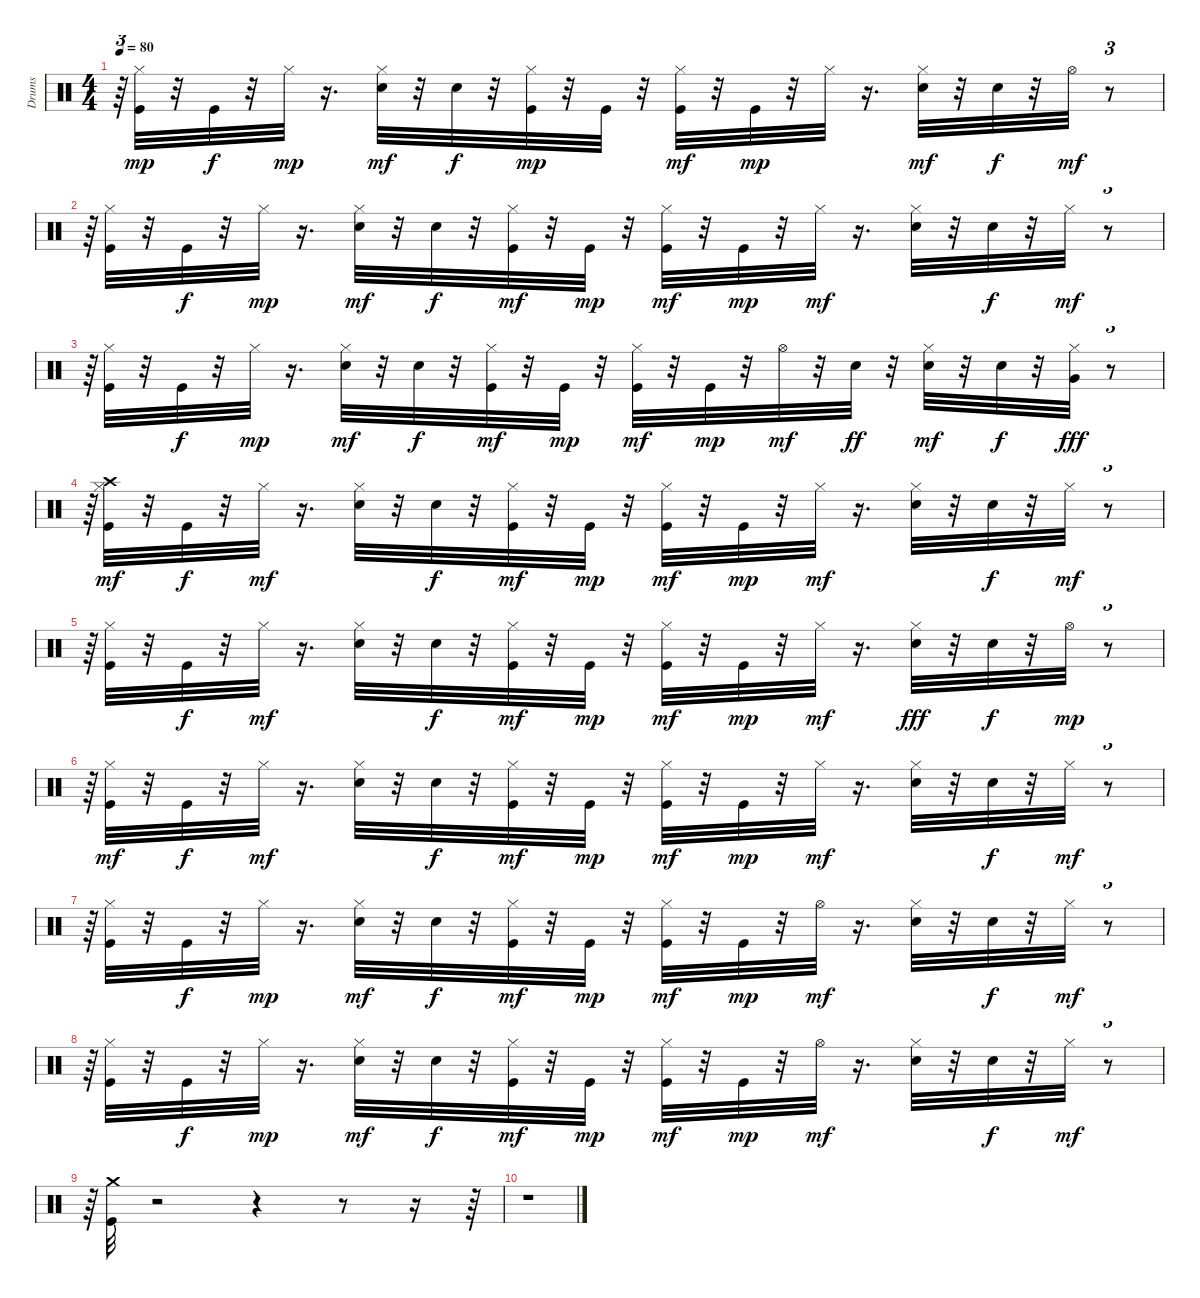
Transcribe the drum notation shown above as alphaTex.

\track ("Drums" "Drums") {instrument percussion}
\staff {score}
\articulation defaults
\ts (4 4)
\tempo 80
\clef neutral
\ks c
r.64{tu (3 2) dy mp} ("Kick (hit)" "Hi-Hat (closed)").32 r.32 "Kick (hit)".32{dy f} r.32 "Hi-Hat (closed)".32{dy mp} r.16{d} ("Snare (hit) 2" "Hi-Hat (closed)").32{dy mf} r.32 "Snare (hit) 2".32{dy f} r.32 ("Kick (hit)" "Hi-Hat (closed)").32{dy mp} r.32 "Kick (hit)".32 r.32 ("Kick (hit)" "Hi-Hat (closed)").32{dy mf} r.32 "Kick (hit)".32{dy mp} r.32 "Hi-Hat (closed)".32 r.16{d} ("Snare (hit) 2" "Hi-Hat (closed)").32{dy mf} r.32 "Snare (hit) 2".32{dy f} r.32 "Hi-Hat (open)".32{dy mf} r.8{tu (3 2)} |
r.64{tu (3 2)} ("Kick (hit)" "Hi-Hat (closed)").32 r.32 "Kick (hit)".32{dy f} r.32 "Hi-Hat (closed)".32{dy mp} r.16{d} ("Snare (hit) 2" "Hi-Hat (closed)").32{dy mf} r.32 "Snare (hit) 2".32{dy f} r.32 ("Kick (hit)" "Hi-Hat (closed)").32{dy mf} r.32 "Kick (hit)".32{dy mp} r.32 ("Kick (hit)" "Hi-Hat (closed)").32{dy mf} r.32 "Kick (hit)".32{dy mp} r.32 "Hi-Hat (closed)".32{dy mf} r.16{d} ("Snare (hit) 2" "Hi-Hat (closed)").32 r.32 "Snare (hit) 2".32{dy f} r.32 "Hi-Hat (closed)".32{dy mf} r.8{tu (3 2)} |
r.64{tu (3 2)} ("Kick (hit)" "Hi-Hat (closed)").32 r.32 "Kick (hit)".32{dy f} r.32 "Hi-Hat (closed)".32{dy mp} r.16{d} ("Snare (hit) 2" "Hi-Hat (closed)").32{dy mf} r.32 "Snare (hit) 2".32{dy f} r.32 ("Kick (hit)" "Hi-Hat (closed)").32{dy mf} r.32 "Kick (hit)".32{dy mp} r.32 ("Kick (hit)" "Hi-Hat (closed)").32{dy mf} r.32 "Kick (hit)".32{dy mp} r.32 "Hi-Hat (open)".32{dy mf} r.32 "Snare (hit) 2".32{dy ff} r.32 ("Snare (hit) 2" "Hi-Hat (closed)").32{dy mf} r.32 "Snare (hit) 2".32{dy f} r.32 ("Hi-Hat (closed)" "Very Low Tom (hit)").32{dy fff} r.8{tu (3 2)} |
r.64{tu (3 2)} ("Crash high (hit)" "Kick (hit)" "Hi-Hat (closed)").32{dy mf} r.32 "Kick (hit)".32{dy f} r.32 "Hi-Hat (closed)".32{dy mf} r.16{d} ("Snare (hit) 2" "Hi-Hat (closed)").32 r.32 "Snare (hit) 2".32{dy f} r.32 ("Kick (hit)" "Hi-Hat (closed)").32{dy mf} r.32 "Kick (hit)".32{dy mp} r.32 ("Kick (hit)" "Hi-Hat (closed)").32{dy mf} r.32 "Kick (hit)".32{dy mp} r.32 "Hi-Hat (closed)".32{dy mf} r.16{d} ("Snare (hit) 2" "Hi-Hat (closed)").32 r.32 "Snare (hit) 2".32{dy f} r.32 "Hi-Hat (closed)".32{dy mf} r.8{tu (3 2)} |
r.64{tu (3 2)} ("Kick (hit)" "Hi-Hat (closed)").32 r.32 "Kick (hit)".32{dy f} r.32 "Hi-Hat (closed)".32{dy mf} r.16{d} ("Snare (hit) 2" "Hi-Hat (closed)").32 r.32 "Snare (hit) 2".32{dy f} r.32 ("Kick (hit)" "Hi-Hat (closed)").32{dy mf} r.32 "Kick (hit)".32{dy mp} r.32 ("Kick (hit)" "Hi-Hat (closed)").32{dy mf} r.32 "Kick (hit)".32{dy mp} r.32 "Hi-Hat (closed)".32{dy mf} r.16{d} ("Snare (hit) 2" "Hi-Hat (closed)").32{dy fff} r.32 "Snare (hit) 2".32{dy f} r.32 "Hi-Hat (open)".32{dy mp} r.8{tu (3 2)} |
r.64{tu (3 2)} ("Kick (hit)" "Hi-Hat (closed)").32{dy mf} r.32 "Kick (hit)".32{dy f} r.32 "Hi-Hat (closed)".32{dy mf} r.16{d} ("Snare (hit) 2" "Hi-Hat (closed)").32 r.32 "Snare (hit) 2".32{dy f} r.32 ("Kick (hit)" "Hi-Hat (closed)").32{dy mf} r.32 "Kick (hit)".32{dy mp} r.32 ("Kick (hit)" "Hi-Hat (closed)").32{dy mf} r.32 "Kick (hit)".32{dy mp} r.32 "Hi-Hat (closed)".32{dy mf} r.16{d} ("Snare (hit) 2" "Hi-Hat (closed)").32 r.32 "Snare (hit) 2".32{dy f} r.32 "Hi-Hat (closed)".32{dy mf} r.8{tu (3 2)} |
r.64{tu (3 2)} ("Kick (hit)" "Hi-Hat (closed)").32 r.32 "Kick (hit)".32{dy f} r.32 "Hi-Hat (closed)".32{dy mp} r.16{d} ("Snare (hit) 2" "Hi-Hat (closed)").32{dy mf} r.32 "Snare (hit) 2".32{dy f} r.32 ("Kick (hit)" "Hi-Hat (closed)").32{dy mf} r.32 "Kick (hit)".32{dy mp} r.32 ("Kick (hit)" "Hi-Hat (closed)").32{dy mf} r.32 "Kick (hit)".32{dy mp} r.32 "Hi-Hat (open)".32{dy mf} r.16{d} ("Snare (hit) 2" "Hi-Hat (closed)").32 r.32 "Snare (hit) 2".32{dy f} r.32 "Hi-Hat (closed)".32{dy mf} r.8{tu (3 2)} |
r.64{tu (3 2)} ("Kick (hit)" "Hi-Hat (closed)").32 r.32 "Kick (hit)".32{dy f} r.32 "Hi-Hat (closed)".32{dy mp} r.16{d} ("Snare (hit) 2" "Hi-Hat (closed)").32{dy mf} r.32 "Snare (hit) 2".32{dy f} r.32 ("Kick (hit)" "Hi-Hat (closed)").32{dy mf} r.32 "Kick (hit)".32{dy mp} r.32 ("Kick (hit)" "Hi-Hat (closed)").32{dy mf} r.32 "Kick (hit)".32{dy mp} r.32 "Hi-Hat (open)".32{dy mf} r.16{d} ("Snare (hit) 2" "Hi-Hat (closed)").32 r.32 "Snare (hit) 2".32{dy f} r.32 "Hi-Hat (closed)".32{dy mf} r.8{tu (3 2)} |
r.64{tu (3 2)} ("Kick (hit)" "Crash medium (hit)").32 r.2 r.4 r.8 r.16 r.64 |
r.1
